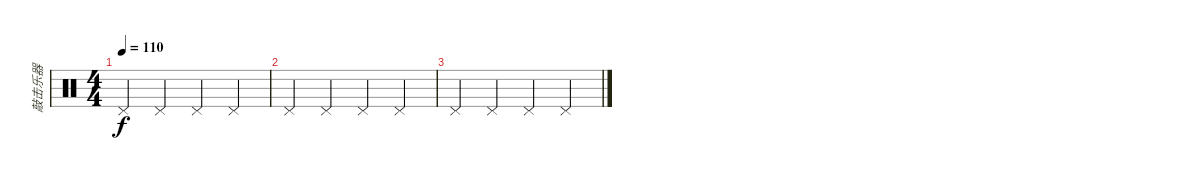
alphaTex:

\track ("敲击乐器" "敲击乐器") {instrument percussion}
\staff {score}
\articulation defaults
\ts (4 4)
\tempo 110
\clef neutral
\ks c "Pedal Hi-Hat (hit)".4{dy f} "Pedal Hi-Hat (hit)".4 "Pedal Hi-Hat (hit)".4 "Pedal Hi-Hat (hit)".4
|
"Pedal Hi-Hat (hit)".4 "Pedal Hi-Hat (hit)".4 "Pedal Hi-Hat (hit)".4 "Pedal Hi-Hat (hit)".4 |
"Pedal Hi-Hat (hit)".4 "Pedal Hi-Hat (hit)".4 "Pedal Hi-Hat (hit)".4 "Pedal Hi-Hat (hit)".4
